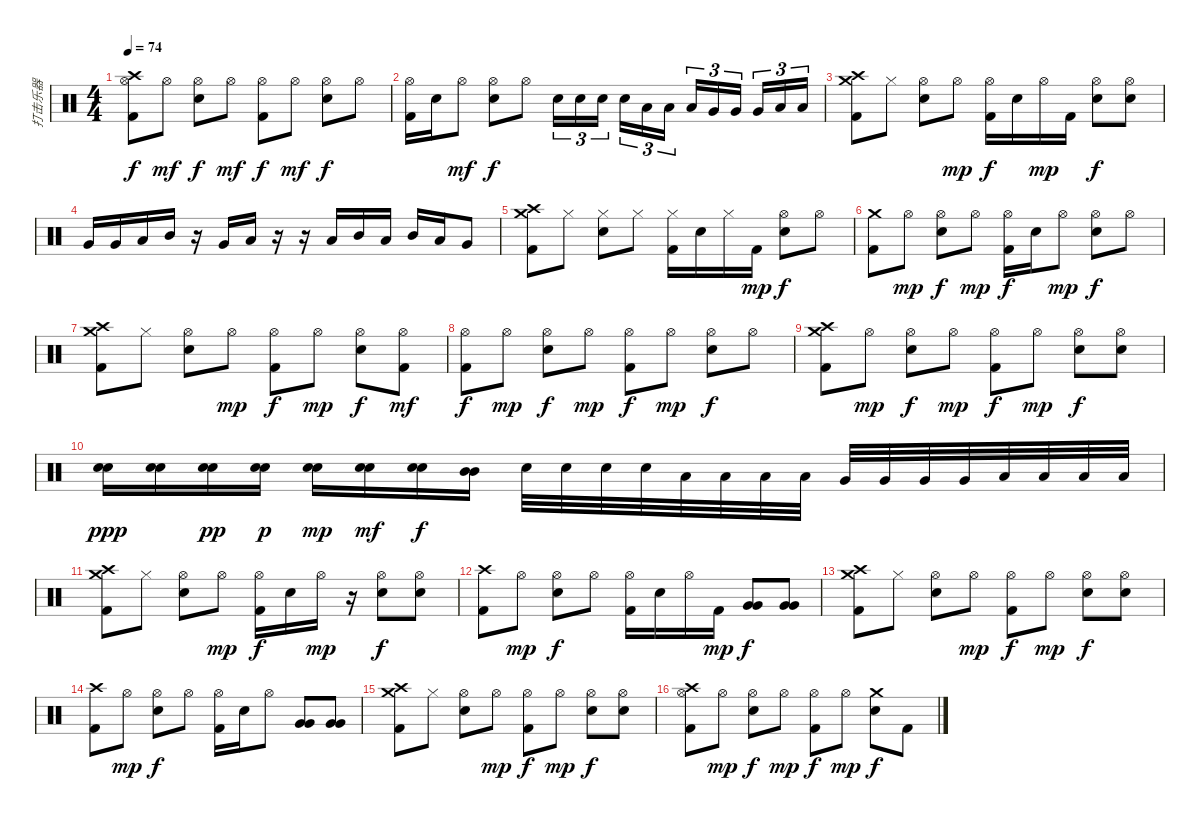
\track ("打击乐器" "打击乐器") {instrument percussion}
\staff {score}
\articulation defaults
\ts (4 4)
\tempo 74
\clef neutral
\ks c
("Crash high (hit)" "Hi-Hat (open)" "Kick (hit) 2").8{dy f} "Hi-Hat (open)".8{dy mf} ("Electric Snare (hit)" "Hi-Hat (open)").8{dy f} "Hi-Hat (open)".8{dy mf} ("Hi-Hat (open)" "Kick (hit) 2").8{dy f} "Hi-Hat (open)".8{dy mf} ("Electric Snare (hit)" "Hi-Hat (open)").8{dy f} "Hi-Hat (open)".8 |
("Hi-Hat (open)" "Kick (hit) 2").16 "Electric Snare (hit)".16 "Hi-Hat (open)".8{dy mf} ("Electric Snare (hit)" "Hi-Hat (open)").8{dy f} "Hi-Hat (open)".8 "Electric Snare (hit)".16{tu (3 2)} "Electric Snare (hit)".16{tu (3 2)} "Electric Snare (hit)".16{tu (3 2)} "Electric Snare (hit)".16{tu (3 2)} "Low Tom (hit)".16{tu (3 2)} "Low Tom (hit)".16{tu (3 2)} "Low Tom (hit)".16{tu (3 2)} "Very Low Tom (hit)".16{tu (3 2)} "Very Low Tom (hit)".16{tu (3 2)} "Very Low Tom (hit)".16{tu (3 2)} "Low Floor Tom (hit)".16{tu (3 2)} "Low Floor Tom (hit)".16{tu (3 2)} |
("Crash high (hit)" "Crash medium (hit)" "Kick (hit) 2").8 "Hi-Hat (closed)".8 ("Electric Snare (hit)" "Hi-Hat (open)").8 "Hi-Hat (open)".8{dy mp} ("Hi-Hat (open)" "Kick (hit) 2").16{dy f} "Electric Snare (hit)".16 "Hi-Hat (open)".16{dy mp} "Kick (hit) 2".16 ("Electric Snare (hit)" "Hi-Hat (open)").8{dy f} ("Electric Snare (hit)" "Hi-Hat (open)").8 |
"Very Low Tom (hit)".16 "Very Low Tom (hit)".16 "Low Tom (hit)".16 "Mid Tom (hit)".16 r.16 "Very Low Tom (hit)".16 "Low Tom (hit)".16 r.16 r.16 "Low Tom (hit)".16 "Mid Tom (hit)".16 "Low Tom (hit)".16 "Mid Tom (hit)".16 "Low Tom (hit)".16 "Very Low Tom (hit)".8 |
("Crash high (hit)" "Crash medium (hit)" "Kick (hit) 2").8 "Hi-Hat (closed)".8 ("Electric Snare (hit)" "Hi-Hat (closed)").8 "Hi-Hat (closed)".8 ("Hi-Hat (closed)" "Kick (hit) 2").16 "Electric Snare (hit)".16 "Hi-Hat (closed)".16 "Kick (hit) 2".16{dy mp} ("Electric Snare (hit)" "Hi-Hat (open)").8{dy f} "Hi-Hat (open)".8 |
("Crash medium (hit)" "Kick (hit) 2").8 "Hi-Hat (open)".8{dy mp} ("Electric Snare (hit)" "Hi-Hat (open)").8{dy f} "Hi-Hat (open)".8{dy mp} ("Hi-Hat (open)" "Kick (hit) 2").16{dy f} "Electric Snare (hit)".16 "Hi-Hat (open)".8{dy mp} ("Electric Snare (hit)" "Hi-Hat (open)").8{dy f} "Hi-Hat (open)".8 |
("Crash high (hit)" "Crash medium (hit)" "Kick (hit) 2").8 "Hi-Hat (closed)".8 ("Electric Snare (hit)" "Hi-Hat (open)").8 "Hi-Hat (open)".8{dy mp} ("Hi-Hat (open)" "Kick (hit) 2").8{dy f} "Hi-Hat (open)".8{dy mp} ("Electric Snare (hit)" "Hi-Hat (open)").8{dy f} ("Hi-Hat (open)" "Kick (hit) 2").8{dy mf} |
("Hi-Hat (open)" "Kick (hit) 2").8{dy f} "Hi-Hat (open)".8{dy mp} ("Electric Snare (hit)" "Hi-Hat (open)").8{dy f} "Hi-Hat (open)".8{dy mp} ("Hi-Hat (open)" "Kick (hit) 2").8{dy f} "Hi-Hat (open)".8{dy mp} ("Electric Snare (hit)" "Hi-Hat (open)").8{dy f} "Hi-Hat (open)".8 |
("Crash high (hit)" "Crash medium (hit)" "Kick (hit) 2").8 "Hi-Hat (open)".8{dy mp} ("Electric Snare (hit)" "Hi-Hat (open)").8{dy f} "Hi-Hat (open)".8{dy mp} ("Hi-Hat (open)" "Kick (hit) 2").8{dy f} "Hi-Hat (open)".8{dy mp} ("Electric Snare (hit)" "Hi-Hat (open)").8{dy f} ("Electric Snare (hit)" "Hi-Hat (open)").8 |
("Electric Snare (hit)" "Electric Snare (hit)").16{bd 60 dy ppp} ("Electric Snare (hit)" "Electric Snare (hit)").16{bd 60} ("Electric Snare (hit)" "Electric Snare (hit)").16{bd 60 dy pp} ("Electric Snare (hit)" "Electric Snare (hit)").16{bd 60 dy p} ("Electric Snare (hit)" "Electric Snare (hit)").16{bd 60 dy mp} ("Electric Snare (hit)" "Electric Snare (hit)").16{bd 60 dy mf} ("Electric Snare (hit)" "Electric Snare (hit)").16{bd 60 dy f} ("Mid Tom (hit)" "Mid Tom (hit)").16{bd 60} "Electric Snare (hit)".32 "Electric Snare (hit)".32 "Electric Snare (hit)".32 "Electric Snare (hit)".32 "Low Tom (hit)".32 "Low Tom (hit)".32 "Low Tom (hit)".32 "Low Tom (hit)".32 "Very Low Tom (hit)".32 "Very Low Tom (hit)".32 "Very Low Tom (hit)".32 "Very Low Tom (hit)".32 "Low Floor Tom (hit)".32 "Low Floor Tom (hit)".32 "Low Floor Tom (hit)".32 "Low Floor Tom (hit)".32 |
("Crash high (hit)" "Crash medium (hit)" "Kick (hit) 2").8 "Hi-Hat (closed)".8 ("Electric Snare (hit)" "Hi-Hat (open)").8 "Hi-Hat (open)".8{dy mp} ("Hi-Hat (open)" "Kick (hit) 2").16{dy f} "Electric Snare (hit)".16 "Hi-Hat (open)".16{dy mp} r.16 ("Electric Snare (hit)" "Hi-Hat (open)").8{dy f} ("Electric Snare (hit)" "Hi-Hat (open)").8 |
("Crash high (hit)" "Kick (hit) 2").8 "Hi-Hat (open)".8{dy mp} ("Electric Snare (hit)" "Hi-Hat (open)").8{dy f} "Hi-Hat (open)".8 ("Hi-Hat (open)" "Kick (hit) 2").16 "Electric Snare (hit)".16 "Hi-Hat (open)".16 "Kick (hit) 2".16{dy mp} ("Very Low Tom (hit)" "Very Low Tom (hit)").8{bd 60 dy f} ("Very Low Tom (hit)" "Very Low Tom (hit)").8{bd 60} |
("Crash high (hit)" "Crash medium (hit)" "Kick (hit) 2").8 "Hi-Hat (closed)".8 ("Electric Snare (hit)" "Hi-Hat (open)").8 "Hi-Hat (open)".8{dy mp} ("Hi-Hat (open)" "Kick (hit) 2").8{dy f} "Hi-Hat (open)".8{dy mp} ("Electric Snare (hit)" "Hi-Hat (open)").8{dy f} ("Electric Snare (hit)" "Hi-Hat (open)").8 |
("Crash high (hit)" "Kick (hit) 2").8 "Hi-Hat (open)".8{dy mp} ("Electric Snare (hit)" "Hi-Hat (open)").8{dy f} "Hi-Hat (open)".8 ("Hi-Hat (open)" "Kick (hit) 2").16 "Electric Snare (hit)".16 "Hi-Hat (open)".8 ("Very Low Tom (hit)" "Very Low Tom (hit)").8{bd 60} ("Very Low Tom (hit)" "Very Low Tom (hit)").8{bd 60} |
("Crash high (hit)" "Crash medium (hit)" "Kick (hit) 2").8 "Hi-Hat (closed)".8 ("Electric Snare (hit)" "Hi-Hat (open)").8 "Hi-Hat (open)".8{dy mp} ("Hi-Hat (open)" "Kick (hit) 2").8{dy f} "Hi-Hat (open)".8{dy mp} ("Electric Snare (hit)" "Hi-Hat (open)").8{dy f} ("Electric Snare (hit)" "Hi-Hat (open)").8 |
("Crash high (hit)" "Hi-Hat (open)" "Kick (hit) 2").8 "Hi-Hat (open)".8{dy mp} ("Electric Snare (hit)" "Hi-Hat (open)").8{dy f} "Hi-Hat (open)".8{dy mp} ("Hi-Hat (open)" "Kick (hit) 2").8{dy f} "Hi-Hat (open)".8{dy mp} ("Electric Snare (hit)" "Crash medium (hit)").8{dy f} "Kick (hit) 2".8
